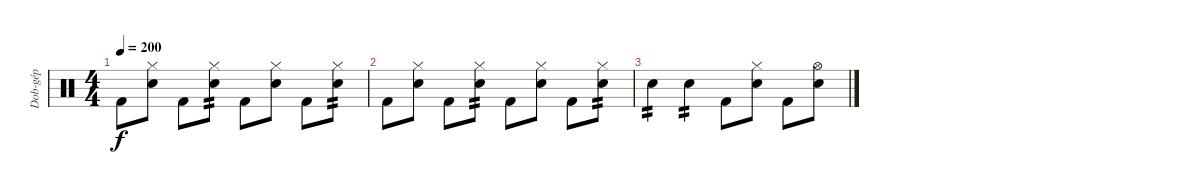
\track ("Dob-gép" "Dob-gép") {instrument percussion}
\staff {score}
\articulation defaults
\ts (4 4)
\tempo 200
\clef neutral
\ks c "Kick (hit) 2".8{dy f}
("Hi-Hat (closed)" "Snare (hit) 2").8 "Kick (hit) 2".8 ("Hi-Hat (closed)" "Snare (hit) 2").8{tp 2} "Kick (hit) 2".8 ("Hi-Hat (closed)" "Snare (hit) 2").8 "Kick (hit) 2".8 ("Hi-Hat (closed)" "Snare (hit) 2").8{tp 2} |
"Kick (hit) 2".8 ("Hi-Hat (closed)" "Snare (hit) 2").8 "Kick (hit) 2".8 ("Hi-Hat (closed)" "Snare (hit) 2").8{tp 2} "Kick (hit) 2".8 ("Hi-Hat (closed)" "Snare (hit) 2").8 "Kick (hit) 2".8 ("Hi-Hat (closed)" "Snare (hit) 2").8{tp 2} |
"Snare (hit) 2".4{tp 2} "Snare (hit) 2".4{tp 2} "Kick (hit) 2".8 ("Hi-Hat (closed)" "Snare (hit) 2").8 "Kick (hit) 2".8 ("Hi-Hat (open)" "Snare (hit) 2").8
